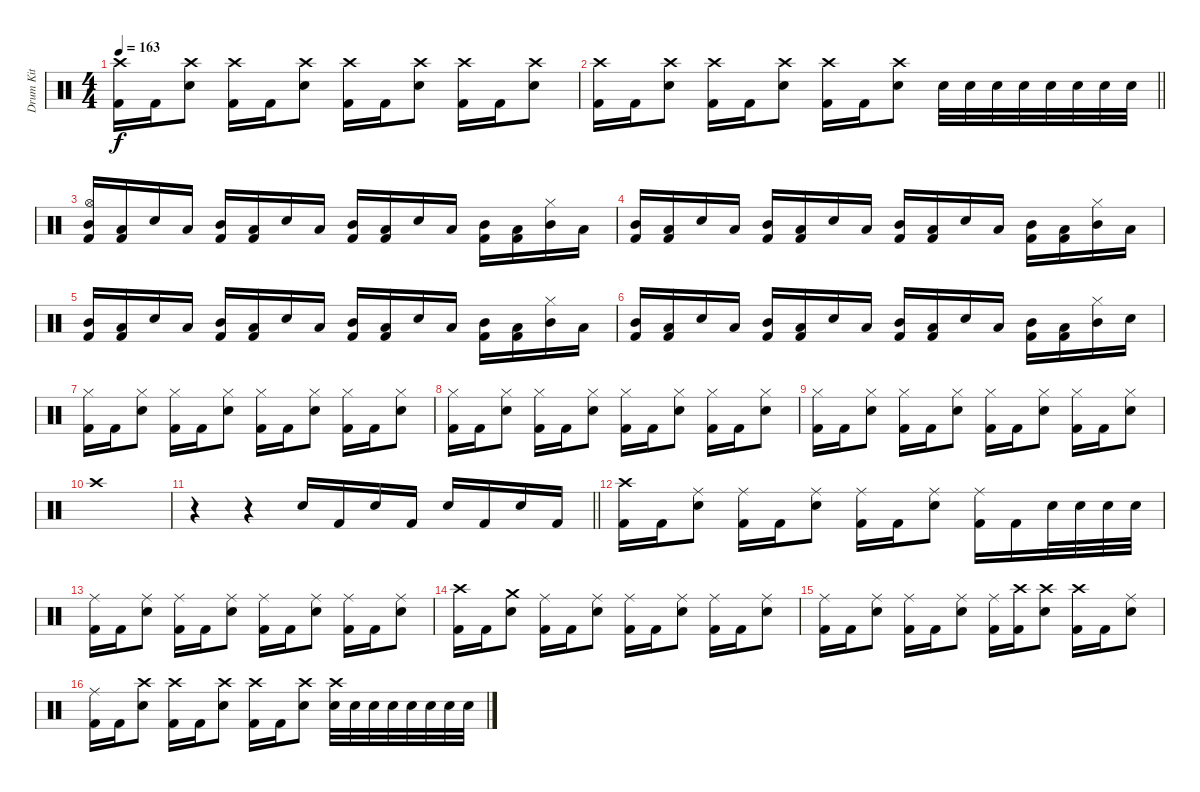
\track ("Drum Kit" "Drum Kit") {instrument percussion}
\staff {score}
\articulation defaults
\ts (4 4)
\tempo 163
\clef neutral
\ks c
("Crash high (hit)" "Kick (hit) 2").16{dy f} "Kick (hit) 2".16 ("Crash high (hit)" "Electric Snare (hit)").8 ("Crash high (hit)" "Kick (hit) 2").16 "Kick (hit) 2".16 ("Crash high (hit)" "Electric Snare (hit)").8 ("Crash high (hit)" "Kick (hit) 2").16 "Kick (hit) 2".16 ("Crash high (hit)" "Electric Snare (hit)").8 ("Crash high (hit)" "Kick (hit) 2").16 "Kick (hit) 2".16 ("Crash high (hit)" "Electric Snare (hit)").8 |
\barLineRight lightlight
("Crash high (hit)" "Kick (hit) 2").16 "Kick (hit) 2".16 ("Crash high (hit)" "Electric Snare (hit)").8 ("Crash high (hit)" "Kick (hit) 2").16 "Kick (hit) 2".16 ("Crash high (hit)" "Electric Snare (hit)").8 ("Crash high (hit)" "Kick (hit) 2").16 "Kick (hit) 2".16 ("Crash high (hit)" "Electric Snare (hit)").8 "Electric Snare (hit)".32 "Electric Snare (hit)".32 "Electric Snare (hit)".32 "Electric Snare (hit)".32 "Electric Snare (hit)".32 "Electric Snare (hit)".32 "Electric Snare (hit)".32 "Electric Snare (hit)".32 |
("Hi-Hat (open)" "Mid Tom (hit)" "Kick (hit) 2").16 ("Low Tom (hit)" "Kick (hit) 2").16 "Electric Snare (hit)".16 "Low Tom (hit)".16 ("Mid Tom (hit)" "Kick (hit) 2").16 ("Low Tom (hit)" "Kick (hit) 2").16 "Electric Snare (hit)".16 "Low Tom (hit)".16 ("Mid Tom (hit)" "Kick (hit) 2").16 ("Low Tom (hit)" "Kick (hit) 2").16 "Electric Snare (hit)".16 "Low Tom (hit)".16 ("Mid Tom (hit)" "Kick (hit) 2").16 ("Low Tom (hit)" "Kick (hit) 2").16 ("Hi-Hat (closed)" "Mid Tom (hit)").16 "Low Tom (hit)".16 |
("Mid Tom (hit)" "Kick (hit) 2").16 ("Low Tom (hit)" "Kick (hit) 2").16 "Electric Snare (hit)".16 "Low Tom (hit)".16 ("Mid Tom (hit)" "Kick (hit) 2").16 ("Low Tom (hit)" "Kick (hit) 2").16 "Electric Snare (hit)".16 "Low Tom (hit)".16 ("Mid Tom (hit)" "Kick (hit) 2").16 ("Low Tom (hit)" "Kick (hit) 2").16 "Electric Snare (hit)".16 "Low Tom (hit)".16 ("Mid Tom (hit)" "Kick (hit) 2").16 ("Low Tom (hit)" "Kick (hit) 2").16 ("Hi-Hat (closed)" "Mid Tom (hit)").16 "Low Tom (hit)".16 |
("Mid Tom (hit)" "Kick (hit) 2").16 ("Low Tom (hit)" "Kick (hit) 2").16 "Electric Snare (hit)".16 "Low Tom (hit)".16 ("Mid Tom (hit)" "Kick (hit) 2").16 ("Low Tom (hit)" "Kick (hit) 2").16 "Electric Snare (hit)".16 "Low Tom (hit)".16 ("Mid Tom (hit)" "Kick (hit) 2").16 ("Low Tom (hit)" "Kick (hit) 2").16 "Electric Snare (hit)".16 "Low Tom (hit)".16 ("Mid Tom (hit)" "Kick (hit) 2").16 ("Low Tom (hit)" "Kick (hit) 2").16 ("Hi-Hat (closed)" "Mid Tom (hit)").16 "Low Tom (hit)".16 |
("Mid Tom (hit)" "Kick (hit) 2").16 ("Low Tom (hit)" "Kick (hit) 2").16 "Electric Snare (hit)".16 "Low Tom (hit)".16 ("Mid Tom (hit)" "Kick (hit) 2").16 ("Low Tom (hit)" "Kick (hit) 2").16 "Electric Snare (hit)".16 "Low Tom (hit)".16 ("Mid Tom (hit)" "Kick (hit) 2").16 ("Low Tom (hit)" "Kick (hit) 2").16 "Electric Snare (hit)".16 "Low Tom (hit)".16 ("Mid Tom (hit)" "Kick (hit) 2").16 ("Low Tom (hit)" "Kick (hit) 2").16 ("Hi-Hat (closed)" "Mid Tom (hit)").16 "Electric Snare (hit)".16 |
("Hi-Hat (closed)" "Kick (hit) 2").16 "Kick (hit) 2".16 ("Hi-Hat (closed)" "Electric Snare (hit)").8 ("Hi-Hat (closed)" "Kick (hit) 2").16 "Kick (hit) 2".16 ("Hi-Hat (closed)" "Electric Snare (hit)").8 ("Hi-Hat (closed)" "Kick (hit) 2").16 "Kick (hit) 2".16 ("Hi-Hat (closed)" "Electric Snare (hit)").8 ("Hi-Hat (closed)" "Kick (hit) 2").16 "Kick (hit) 2".16 ("Hi-Hat (closed)" "Electric Snare (hit)").8 |
("Hi-Hat (closed)" "Kick (hit) 2").16 "Kick (hit) 2".16 ("Hi-Hat (closed)" "Electric Snare (hit)").8 ("Hi-Hat (closed)" "Kick (hit) 2").16 "Kick (hit) 2".16 ("Hi-Hat (closed)" "Electric Snare (hit)").8 ("Hi-Hat (closed)" "Kick (hit) 2").16 "Kick (hit) 2".16 ("Hi-Hat (closed)" "Electric Snare (hit)").8 ("Hi-Hat (closed)" "Kick (hit) 2").16 "Kick (hit) 2".16 ("Hi-Hat (closed)" "Electric Snare (hit)").8 |
("Hi-Hat (closed)" "Kick (hit) 2").16 "Kick (hit) 2".16 ("Hi-Hat (closed)" "Electric Snare (hit)").8 ("Hi-Hat (closed)" "Kick (hit) 2").16 "Kick (hit) 2".16 ("Hi-Hat (closed)" "Electric Snare (hit)").8 ("Hi-Hat (closed)" "Kick (hit) 2").16 "Kick (hit) 2".16 ("Hi-Hat (closed)" "Electric Snare (hit)").8 ("Hi-Hat (closed)" "Kick (hit) 2").16 "Kick (hit) 2".16 ("Hi-Hat (closed)" "Electric Snare (hit)").8 |
"Crash high (hit)".1 |
\barLineRight lightlight
r.4 r.4 "Electric Snare (hit)".16 "Kick (hit) 2".16 "Electric Snare (hit)".16 "Kick (hit) 2".16 "Electric Snare (hit)".16 "Kick (hit) 2".16 "Electric Snare (hit)".16 "Kick (hit) 2".16 |
("Crash high (hit)" "Kick (hit) 2").16 "Kick (hit) 2".16 ("Ride (middle)" "Electric Snare (hit)").8 ("Ride (middle)" "Kick (hit) 2").16 "Kick (hit) 2".16 ("Ride (middle)" "Electric Snare (hit)").8 ("Ride (middle)" "Kick (hit) 2").16 "Kick (hit) 2".16 ("Ride (middle)" "Electric Snare (hit)").8 ("Ride (middle)" "Kick (hit) 2").16 "Kick (hit) 2".16 "Electric Snare (hit)".32 "Electric Snare (hit)".32 "Electric Snare (hit)".32 "Electric Snare (hit)".32 |
("Ride (middle)" "Kick (hit) 2").16 "Kick (hit) 2".16 ("Ride (middle)" "Electric Snare (hit)").8 ("Ride (middle)" "Kick (hit) 2").16 "Kick (hit) 2".16 ("Ride (middle)" "Electric Snare (hit)").8 ("Ride (middle)" "Kick (hit) 2").16 "Kick (hit) 2".16 ("Ride (middle)" "Electric Snare (hit)").8 ("Ride (middle)" "Kick (hit) 2").16 "Kick (hit) 2".16 ("Ride (middle)" "Electric Snare (hit)").8 |
("Crash high (hit)" "Kick (hit) 2").16 "Kick (hit) 2".16 ("Crash medium (hit)" "Electric Snare (hit)").8 ("Ride (middle)" "Kick (hit) 2").16 "Kick (hit) 2".16 ("Ride (middle)" "Electric Snare (hit)").8 ("Ride (middle)" "Kick (hit) 2").16 "Kick (hit) 2".16 ("Ride (middle)" "Electric Snare (hit)").8 ("Ride (middle)" "Kick (hit) 2").16 "Kick (hit) 2".16 ("Ride (middle)" "Electric Snare (hit)").8 |
("Ride (middle)" "Kick (hit) 2").16 "Kick (hit) 2".16 ("Ride (middle)" "Electric Snare (hit)").8 ("Ride (middle)" "Kick (hit) 2").16 "Kick (hit) 2".16 ("Ride (middle)" "Electric Snare (hit)").8 ("Ride (middle)" "Kick (hit) 2").16 ("Crash high (hit)" "Kick (hit) 2").16 ("Crash high (hit)" "Electric Snare (hit)").8 ("Crash high (hit)" "Kick (hit) 2").16 "Kick (hit) 2".16 ("Ride (middle)" "Electric Snare (hit)").8 |
("Ride (middle)" "Kick (hit) 2").16 "Kick (hit) 2".16 ("Crash high (hit)" "Electric Snare (hit)").8 ("Crash high (hit)" "Kick (hit) 2").16 "Kick (hit) 2".16 ("Crash high (hit)" "Electric Snare (hit)").8 ("Crash high (hit)" "Kick (hit) 2").16 "Kick (hit) 2".16 ("Crash high (hit)" "Electric Snare (hit)").8 ("Crash high (hit)" "Electric Snare (hit)").32 "Electric Snare (hit)".32 "Electric Snare (hit)".32 "Electric Snare (hit)".32 "Electric Snare (hit)".32 "Electric Snare (hit)".32 "Electric Snare (hit)".32 "Electric Snare (hit)".32
